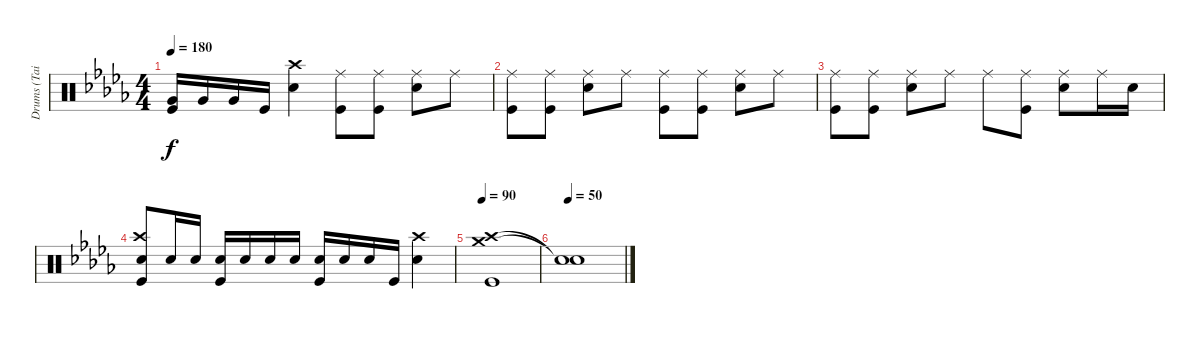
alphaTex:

\track ("Drums (Tainaka Ritsu)" "Drums (Tai") {instrument percussion}
\staff {score}
\articulation defaults
\ts (4 4)
\tempo 180
\clef neutral
\ks db
("Very Low Tom (hit)" "Kick (hit)").16{dy f} "Very Low Tom (hit)".16 "Very Low Tom (hit)".16 "Kick (hit)".16 ("Crash high (hit)" "Snare (hit) 2").4 ("Ride (middle)" "Kick (hit)").8 ("Ride (middle)" "Kick (hit)").8 ("Ride (middle)" "Snare (hit) 2").8 "Ride (middle)".8 |
("Ride (middle)" "Kick (hit)").8 ("Ride (middle)" "Kick (hit)").8 ("Ride (middle)" "Snare (hit) 2").8 "Ride (middle)".8 ("Ride (middle)" "Kick (hit)").8 ("Ride (middle)" "Kick (hit)").8 ("Ride (middle)" "Snare (hit) 2").8 "Ride (middle)".8 |
("Ride (middle)" "Kick (hit)").8 ("Ride (middle)" "Kick (hit)").8 ("Ride (middle)" "Snare (hit) 2").8 "Ride (middle)".8 "Ride (middle)".8 ("Ride (middle)" "Kick (hit)").8 ("Ride (middle)" "Snare (hit) 2").8 "Ride (middle)".16 "Snare (hit) 2".16 |
("Crash high (hit)" "Snare (hit) 2" "Kick (hit)").8 "Snare (hit) 2".16 "Snare (hit) 2".16 ("Snare (hit) 2" "Kick (hit)").16 "Snare (hit) 2".16 "Snare (hit) 2".16 "Snare (hit) 2".16 ("Snare (hit) 2" "Kick (hit)").16 "Snare (hit) 2".16 "Snare (hit) 2".16 "Kick (hit)".16 ("Crash high (hit)" "Snare (hit) 2").4 |
\tempo 90
("Crash high (hit)" "Crash medium (hit)" "Kick (hit)").1 |
\tempo 50
("Snare (hit)"{t} "Snare (hit)"{t}).1
